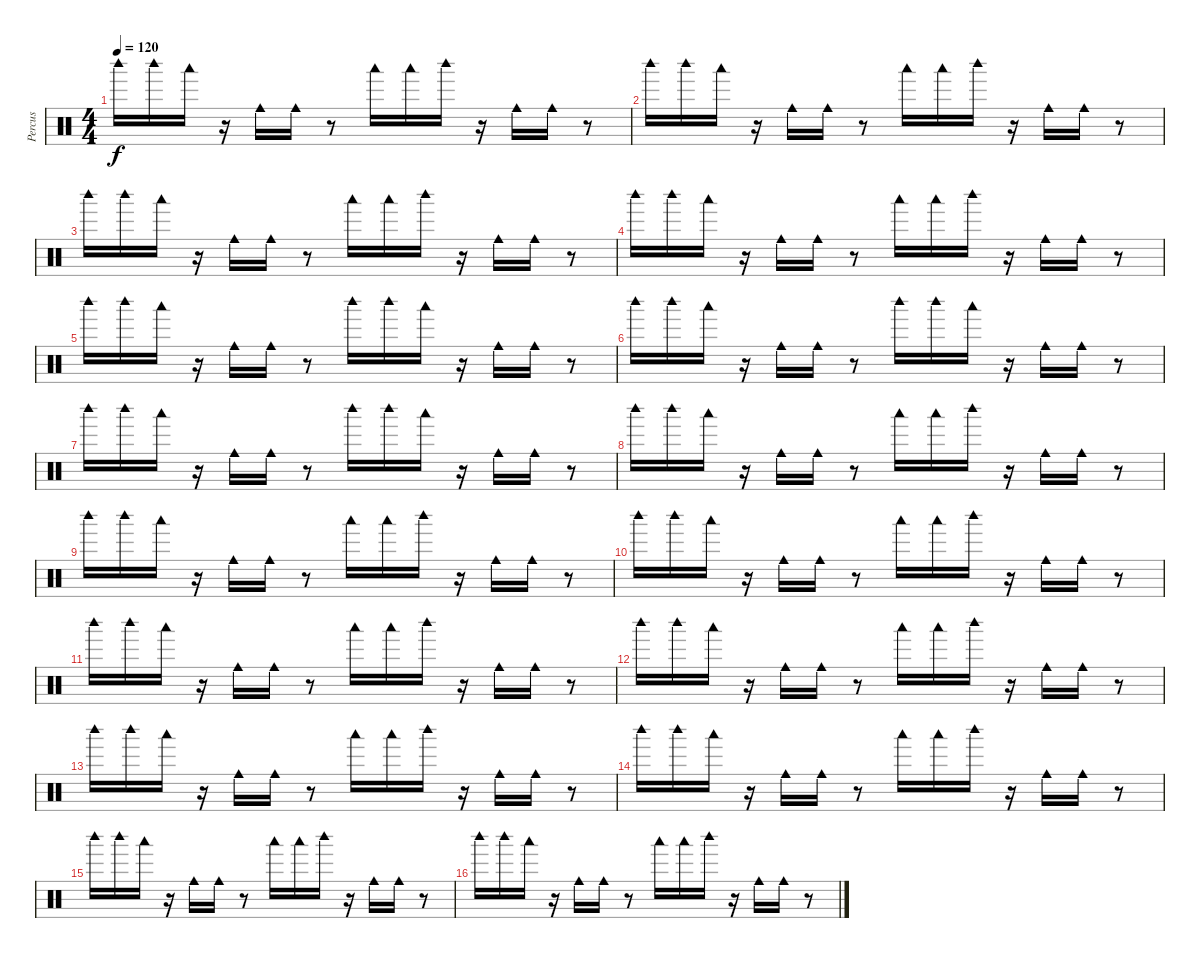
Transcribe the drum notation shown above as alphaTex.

\track ("Percus" "Percus") {instrument percussion}
\staff {score}
\articulation defaults
\ts (4 4)
\tempo 120
\clef neutral
\ks c "Woodblock high (hit)".16{dy f} "Woodblock high (hit)".16 "Woodblock low (hit)".16
r.16 "Cowbell medium (hit)".16 "Cowbell medium (hit)".16 r.8 "Woodblock low (hit)".16 "Woodblock low (hit)".16 "Woodblock high (hit)".16 r.16 "Cowbell medium (hit)".16 "Cowbell medium (hit)".16 r.8 |
"Woodblock high (hit)".16 "Woodblock high (hit)".16 "Woodblock low (hit)".16 r.16 "Cowbell medium (hit)".16 "Cowbell medium (hit)".16 r.8 "Woodblock low (hit)".16 "Woodblock low (hit)".16 "Woodblock high (hit)".16 r.16 "Cowbell medium (hit)".16 "Cowbell medium (hit)".16 r.8 |
"Woodblock high (hit)".16 "Woodblock high (hit)".16 "Woodblock low (hit)".16 r.16 "Cowbell medium (hit)".16 "Cowbell medium (hit)".16 r.8 "Woodblock low (hit)".16 "Woodblock low (hit)".16 "Woodblock high (hit)".16 r.16 "Cowbell medium (hit)".16 "Cowbell medium (hit)".16 r.8 |
"Woodblock high (hit)".16 "Woodblock high (hit)".16 "Woodblock low (hit)".16 r.16 "Cowbell medium (hit)".16 "Cowbell medium (hit)".16 r.8 "Woodblock low (hit)".16 "Woodblock low (hit)".16 "Woodblock high (hit)".16 r.16 "Cowbell medium (hit)".16 "Cowbell medium (hit)".16 r.8 |
"Woodblock high (hit)".16 "Woodblock high (hit)".16 "Woodblock low (hit)".16 r.16 "Cowbell medium (hit)".16 "Cowbell medium (hit)".16 r.8 "Woodblock high (hit)".16 "Woodblock high (hit)".16 "Woodblock low (hit)".16 r.16 "Cowbell medium (hit)".16 "Cowbell medium (hit)".16 r.8 |
"Woodblock high (hit)".16 "Woodblock high (hit)".16 "Woodblock low (hit)".16 r.16 "Cowbell medium (hit)".16 "Cowbell medium (hit)".16 r.8 "Woodblock high (hit)".16 "Woodblock high (hit)".16 "Woodblock low (hit)".16 r.16 "Cowbell medium (hit)".16 "Cowbell medium (hit)".16 r.8 |
"Woodblock high (hit)".16 "Woodblock high (hit)".16 "Woodblock low (hit)".16 r.16 "Cowbell medium (hit)".16 "Cowbell medium (hit)".16 r.8 "Woodblock high (hit)".16 "Woodblock high (hit)".16 "Woodblock low (hit)".16 r.16 "Cowbell medium (hit)".16 "Cowbell medium (hit)".16 r.8 |
"Woodblock high (hit)".16 "Woodblock high (hit)".16 "Woodblock low (hit)".16 r.16 "Cowbell medium (hit)".16 "Cowbell medium (hit)".16 r.8 "Woodblock low (hit)".16 "Woodblock low (hit)".16 "Woodblock high (hit)".16 r.16 "Cowbell medium (hit)".16 "Cowbell medium (hit)".16 r.8 |
"Woodblock high (hit)".16 "Woodblock high (hit)".16 "Woodblock low (hit)".16 r.16 "Cowbell medium (hit)".16 "Cowbell medium (hit)".16 r.8 "Woodblock low (hit)".16 "Woodblock low (hit)".16 "Woodblock high (hit)".16 r.16 "Cowbell medium (hit)".16 "Cowbell medium (hit)".16 r.8 |
"Woodblock high (hit)".16 "Woodblock high (hit)".16 "Woodblock low (hit)".16 r.16 "Cowbell medium (hit)".16 "Cowbell medium (hit)".16 r.8 "Woodblock low (hit)".16 "Woodblock low (hit)".16 "Woodblock high (hit)".16 r.16 "Cowbell medium (hit)".16 "Cowbell medium (hit)".16 r.8 |
"Woodblock high (hit)".16 "Woodblock high (hit)".16 "Woodblock low (hit)".16 r.16 "Cowbell medium (hit)".16 "Cowbell medium (hit)".16 r.8 "Woodblock low (hit)".16 "Woodblock low (hit)".16 "Woodblock high (hit)".16 r.16 "Cowbell medium (hit)".16 "Cowbell medium (hit)".16 r.8 |
"Woodblock high (hit)".16 "Woodblock high (hit)".16 "Woodblock low (hit)".16 r.16 "Cowbell medium (hit)".16 "Cowbell medium (hit)".16 r.8 "Woodblock low (hit)".16 "Woodblock low (hit)".16 "Woodblock high (hit)".16 r.16 "Cowbell medium (hit)".16 "Cowbell medium (hit)".16 r.8 |
"Woodblock high (hit)".16 "Woodblock high (hit)".16 "Woodblock low (hit)".16 r.16 "Cowbell medium (hit)".16 "Cowbell medium (hit)".16 r.8 "Woodblock low (hit)".16 "Woodblock low (hit)".16 "Woodblock high (hit)".16 r.16 "Cowbell medium (hit)".16 "Cowbell medium (hit)".16 r.8 |
"Woodblock high (hit)".16 "Woodblock high (hit)".16 "Woodblock low (hit)".16 r.16 "Cowbell medium (hit)".16 "Cowbell medium (hit)".16 r.8 "Woodblock low (hit)".16 "Woodblock low (hit)".16 "Woodblock high (hit)".16 r.16 "Cowbell medium (hit)".16 "Cowbell medium (hit)".16 r.8 |
"Woodblock high (hit)".16 "Woodblock high (hit)".16 "Woodblock low (hit)".16 r.16 "Cowbell medium (hit)".16 "Cowbell medium (hit)".16 r.8 "Woodblock low (hit)".16 "Woodblock low (hit)".16 "Woodblock high (hit)".16 r.16 "Cowbell medium (hit)".16 "Cowbell medium (hit)".16 r.8 |
"Woodblock high (hit)".16 "Woodblock high (hit)".16 "Woodblock low (hit)".16 r.16 "Cowbell medium (hit)".16 "Cowbell medium (hit)".16 r.8 "Woodblock low (hit)".16 "Woodblock low (hit)".16 "Woodblock high (hit)".16 r.16 "Cowbell medium (hit)".16 "Cowbell medium (hit)".16 r.8
